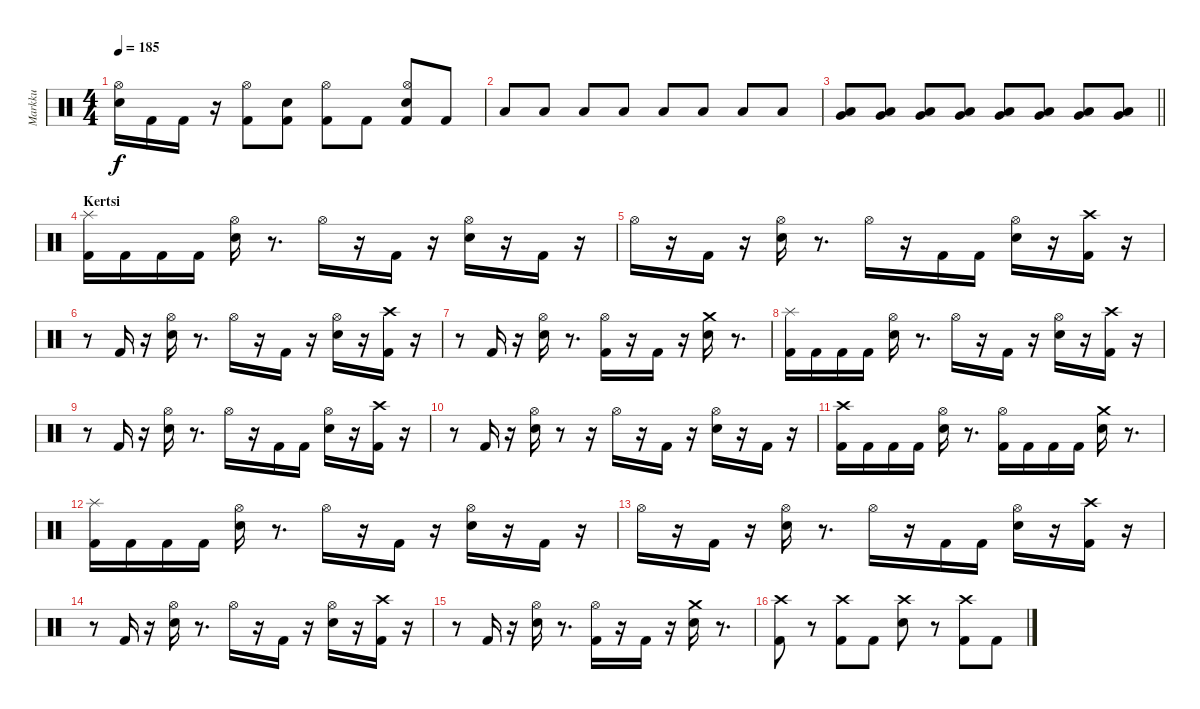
\track ("Markku" "Markku") {instrument percussion}
\staff {score}
\articulation defaults
\ts (4 4)
\tempo 185
\clef neutral
\ks c
("Snare (hit) 2" "Hi-Hat (open)").16{dy f} "Kick (hit) 2".16 "Kick (hit) 2".16 r.16 ("Kick (hit) 2" "Hi-Hat (open)").8 ("Kick (hit) 2" "Snare (hit) 2").8 ("Kick (hit) 2" "Hi-Hat (open)").8 "Kick (hit) 2".8 ("Kick (hit) 2" "Snare (hit) 2" "Hi-Hat (open)").8 "Kick (hit) 2".8 |
"Low Tom (hit)".8 "Low Tom (hit)".8 "Low Tom (hit)".8 "Low Tom (hit)".8 "Low Tom (hit)".8 "Low Tom (hit)".8 "Low Tom (hit)".8 "Low Tom (hit)".8 |
\barLineRight lightlight
("Low Tom (hit)" "Very Low Tom (hit)").8 ("Low Tom (hit)" "Very Low Tom (hit)").8 ("Low Tom (hit)" "Very Low Tom (hit)").8 ("Low Tom (hit)" "Very Low Tom (hit)").8 ("Low Tom (hit)" "Very Low Tom (hit)").8 ("Low Tom (hit)" "Very Low Tom (hit)").8 ("Low Tom (hit)" "Very Low Tom (hit)").8 ("Low Tom (hit)" "Very Low Tom (hit)").8 |
\section ("" "Kertsi")
("Kick (hit) 2" "Splash (hit)").16 "Kick (hit) 2".16 "Kick (hit) 2".16 "Kick (hit) 2".16 ("Snare (hit) 2" "Hi-Hat (open)").16 r.8{d} "Hi-Hat (open)".16 r.16 "Kick (hit) 2".16 r.16 ("Snare (hit) 2" "Hi-Hat (open)").16 r.16 "Kick (hit) 2".16 r.16 |
"Hi-Hat (open)".16 r.16 "Kick (hit) 2".16 r.16 ("Snare (hit) 2" "Hi-Hat (open)").16 r.8{d} "Hi-Hat (open)".16 r.16 "Kick (hit) 2".16 "Kick (hit) 2".16 ("Snare (hit) 2" "Hi-Hat (open)").16 r.16 ("Kick (hit) 2" "Crash high (hit)").16 r.16 |
r.8 "Kick (hit) 2".16 r.16 ("Snare (hit) 2" "Hi-Hat (open)").16 r.8{d} "Hi-Hat (open)".16 r.16 "Kick (hit) 2".16 r.16 ("Snare (hit) 2" "Hi-Hat (open)").16 r.16 ("Kick (hit) 2" "Crash high (hit)").16 r.16 |
r.8 "Kick (hit) 2".16 r.16 ("Snare (hit) 2" "Hi-Hat (open)").16 r.8{d} ("Kick (hit) 2" "Hi-Hat (open)").16 r.16 "Kick (hit) 2".16 r.16 ("Snare (hit) 2" "Crash medium (hit)").16 r.8{d} |
("Kick (hit) 2" "Splash (hit)").16 "Kick (hit) 2".16 "Kick (hit) 2".16 "Kick (hit) 2".16 ("Snare (hit) 2" "Hi-Hat (open)").16 r.8{d} "Hi-Hat (open)".16 r.16 "Kick (hit) 2".16 r.16 ("Snare (hit) 2" "Hi-Hat (open)").16 r.16 ("Kick (hit) 2" "Crash high (hit)").16 r.16 |
r.8 "Kick (hit) 2".16 r.16 ("Snare (hit) 2" "Hi-Hat (open)").16 r.8{d} "Hi-Hat (open)".16 r.16 "Kick (hit) 2".16 "Kick (hit) 2".16 ("Snare (hit) 2" "Hi-Hat (open)").16 r.16 ("Kick (hit) 2" "Crash high (hit)").16 r.16 |
r.8 "Kick (hit) 2".16 r.16 ("Snare (hit) 2" "Hi-Hat (open)").16 r.8 r.16 "Hi-Hat (open)".16 r.16 "Kick (hit) 2".16 r.16 ("Snare (hit) 2" "Hi-Hat (open)").16 r.16 "Kick (hit) 2".16 r.16 |
("Kick (hit) 2" "Crash high (hit)").16 "Kick (hit) 2".16 "Kick (hit) 2".16 "Kick (hit) 2".16 ("Snare (hit) 2" "Hi-Hat (open)").16 r.8{d} ("Kick (hit) 2" "Hi-Hat (open)").16 "Kick (hit) 2".16 "Kick (hit) 2".16 "Kick (hit) 2".16 ("Snare (hit) 2" "Crash medium (hit)").16 r.8{d} |
("Kick (hit) 2" "Splash (hit)").16 "Kick (hit) 2".16 "Kick (hit) 2".16 "Kick (hit) 2".16 ("Snare (hit) 2" "Hi-Hat (open)").16 r.8{d} "Hi-Hat (open)".16 r.16 "Kick (hit) 2".16 r.16 ("Snare (hit) 2" "Hi-Hat (open)").16 r.16 "Kick (hit) 2".16 r.16 |
"Hi-Hat (open)".16 r.16 "Kick (hit) 2".16 r.16 ("Snare (hit) 2" "Hi-Hat (open)").16 r.8{d} "Hi-Hat (open)".16 r.16 "Kick (hit) 2".16 "Kick (hit) 2".16 ("Snare (hit) 2" "Hi-Hat (open)").16 r.16 ("Kick (hit) 2" "Crash high (hit)").16 r.16 |
r.8 "Kick (hit) 2".16 r.16 ("Snare (hit) 2" "Hi-Hat (open)").16 r.8{d} "Hi-Hat (open)".16 r.16 "Kick (hit) 2".16 r.16 ("Snare (hit) 2" "Hi-Hat (open)").16 r.16 ("Kick (hit) 2" "Crash high (hit)").16 r.16 |
r.8 "Kick (hit) 2".16 r.16 ("Snare (hit) 2" "Hi-Hat (open)").16 r.8{d} ("Kick (hit) 2" "Hi-Hat (open)").16 r.16 "Kick (hit) 2".16 r.16 ("Snare (hit) 2" "Crash medium (hit)").16 r.8{d} |
("Kick (hit) 2" "Crash high (hit)").8 r.8 ("Kick (hit) 2" "Crash high (hit)").8 "Kick (hit) 2".8 ("Snare (hit) 2" "Crash high (hit)").8 r.8 ("Kick (hit) 2" "Crash high (hit)").8 "Kick (hit) 2".8
